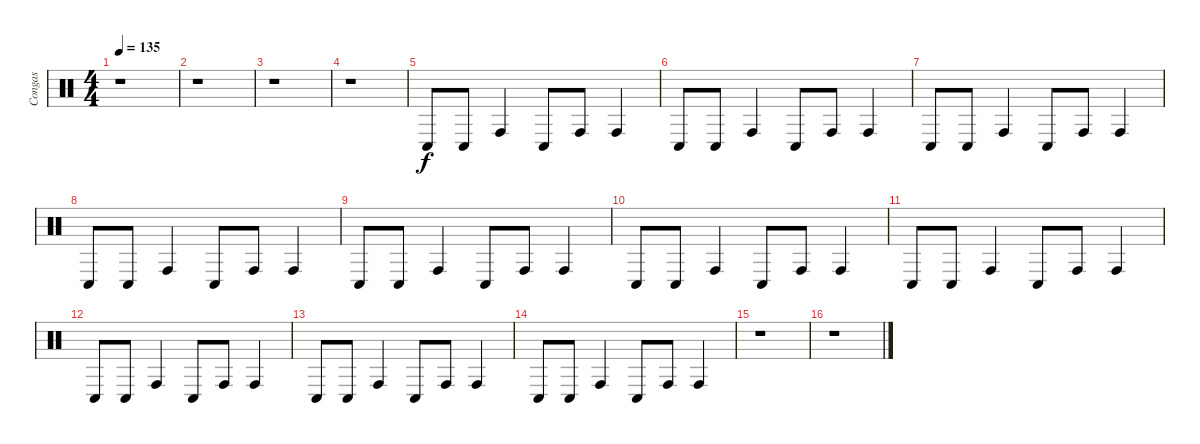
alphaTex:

\track ("Congas" "Congas") {instrument percussion}
\staff {score}
\articulation defaults
\ts (4 4)
\tempo 135
\clef neutral
\ks c
r.1{dy f} |
r.1 |
r.1 |
r.1 |
"Conga low (hit)".8 "Conga low (hit)".8 "Conga high (hit)".4 "Conga low (hit)".8 "Conga high (hit)".8 "Conga high (hit)".4 |
"Conga low (hit)".8 "Conga low (hit)".8 "Conga high (hit)".4 "Conga low (hit)".8 "Conga high (hit)".8 "Conga high (hit)".4 |
"Conga low (hit)".8 "Conga low (hit)".8 "Conga high (hit)".4 "Conga low (hit)".8 "Conga high (hit)".8 "Conga high (hit)".4 |
"Conga low (hit)".8 "Conga low (hit)".8 "Conga high (hit)".4 "Conga low (hit)".8 "Conga high (hit)".8 "Conga high (hit)".4 |
"Conga low (hit)".8 "Conga low (hit)".8 "Conga high (hit)".4 "Conga low (hit)".8 "Conga high (hit)".8 "Conga high (hit)".4 |
"Conga low (hit)".8 "Conga low (hit)".8 "Conga high (hit)".4 "Conga low (hit)".8 "Conga high (hit)".8 "Conga high (hit)".4 |
"Conga low (hit)".8 "Conga low (hit)".8 "Conga high (hit)".4 "Conga low (hit)".8 "Conga high (hit)".8 "Conga high (hit)".4 |
"Conga low (hit)".8 "Conga low (hit)".8 "Conga high (hit)".4 "Conga low (hit)".8 "Conga high (hit)".8 "Conga high (hit)".4 |
"Conga low (hit)".8 "Conga low (hit)".8 "Conga high (hit)".4 "Conga low (hit)".8 "Conga high (hit)".8 "Conga high (hit)".4 |
"Conga low (hit)".8 "Conga low (hit)".8 "Conga high (hit)".4 "Conga low (hit)".8 "Conga high (hit)".8 "Conga high (hit)".4 |
r.1 |
r.1
